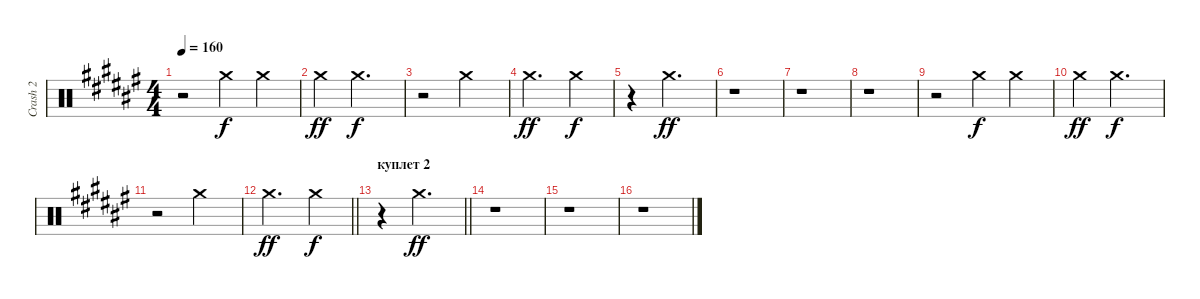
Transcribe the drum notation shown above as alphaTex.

\track ("Crash 2" "Crash 2") {instrument percussion}
\staff {score}
\articulation defaults
\ts (4 4)
\tempo 160
\clef neutral
\ks d#minor
r.2{dy ff} "Crash medium (hit)".4{dy f} "Crash medium (hit)".4 |
"Crash medium (hit)".4{dy ff} "Crash medium (hit)".2{d dy f} |
r.2 "Crash medium (hit)".2 |
"Crash medium (hit)".2{d dy ff} "Crash medium (hit)".4{dy f} |
r.4 "Crash medium (hit)".2{d dy ff} |
r.1 |
r.1 |
r.1 |
r.2 "Crash medium (hit)".4{dy f} "Crash medium (hit)".4 |
"Crash medium (hit)".4{dy ff} "Crash medium (hit)".2{d dy f} |
r.2 "Crash medium (hit)".2 |
\barLineRight lightlight "Crash medium (hit)".2{d dy ff} "Crash medium (hit)".4{dy f}
|
\section ("" "куплет 2")
\barLineRight lightlight
r.4 "Crash medium (hit)".2{d dy ff} |
r.1 |
r.1 |
r.1
